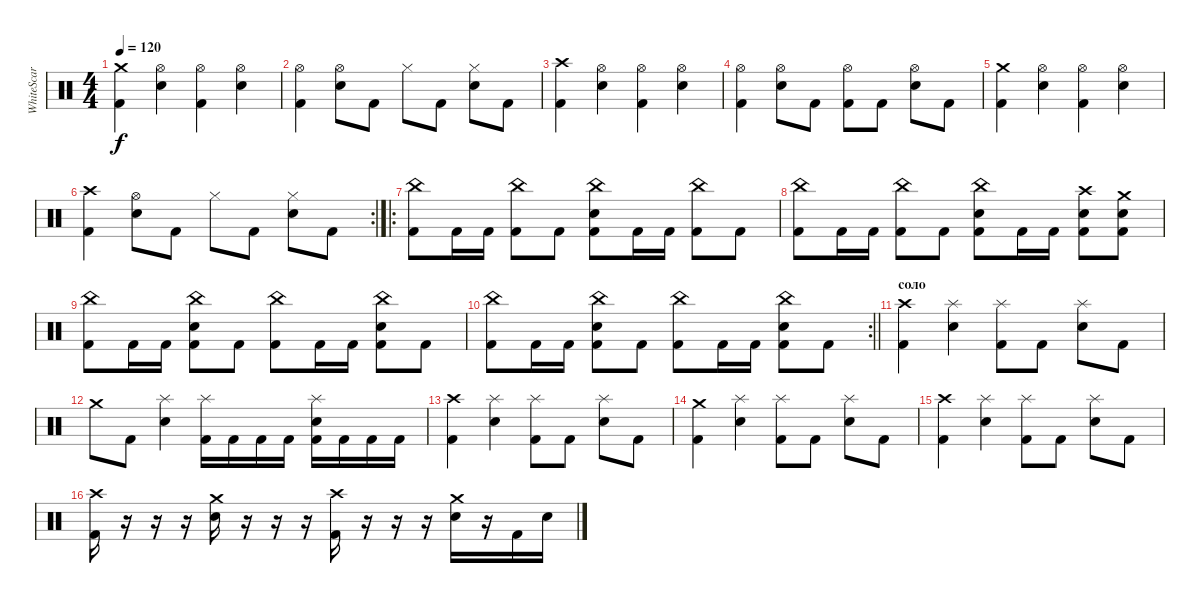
\track ("WhiteScar" "WhiteScar") {instrument percussion}
\staff {score}
\articulation defaults
\ts (4 4)
\tempo 120
\clef neutral
\ks c
("Crash medium (hit)" "Kick (hit) 2").4{dy f} ("Hi-Hat (open)" "Snare (hit) 2").4 ("Hi-Hat (open)" "Kick (hit) 2").4 ("Hi-Hat (open)" "Snare (hit) 2").4 |
("Hi-Hat (open)" "Kick (hit) 2").4 ("Hi-Hat (open)" "Snare (hit) 2").8 "Kick (hit) 2".8 "Hi-Hat (closed)".8 "Kick (hit) 2".8 ("Hi-Hat (closed)" "Snare (hit) 2").8 "Kick (hit) 2".8 |
("Crash high (hit)" "Kick (hit) 2").4 ("Hi-Hat (open)" "Snare (hit) 2").4 ("Hi-Hat (open)" "Kick (hit) 2").4 ("Hi-Hat (open)" "Snare (hit) 2").4 |
("Hi-Hat (open)" "Kick (hit) 2").4 ("Hi-Hat (open)" "Snare (hit) 2").8 "Kick (hit) 2".8 ("Hi-Hat (open)" "Kick (hit) 2").8 "Kick (hit) 2".8 ("Hi-Hat (open)" "Snare (hit) 2").8 "Kick (hit) 2".8 |
("Crash medium (hit)" "Kick (hit) 2").4 ("Hi-Hat (open)" "Snare (hit) 2").4 ("Hi-Hat (open)" "Kick (hit) 2").4 ("Hi-Hat (open)" "Snare (hit) 2").4 |
\rc 2
("Crash high (hit)" "Kick (hit) 2").4 ("Hi-Hat (open)" "Snare (hit) 2").8 "Kick (hit) 2".8 "Hi-Hat (closed)".8 "Kick (hit) 2".8 ("Hi-Hat (closed)" "Snare (hit) 2").8 "Kick (hit) 2".8 |
\ro
("China (hit)" "Kick (hit) 2").8 "Kick (hit) 2".16 "Kick (hit) 2".16 ("China (hit)" "Kick (hit) 2").8 "Kick (hit) 2".8 ("Snare (hit) 2" "China (hit)" "Kick (hit) 2").8 "Kick (hit) 2".16 "Kick (hit) 2".16 ("China (hit)" "Kick (hit) 2").8 "Kick (hit) 2".8 |
("China (hit)" "Kick (hit) 2").8 "Kick (hit) 2".16 "Kick (hit) 2".16 ("China (hit)" "Kick (hit) 2").8 "Kick (hit) 2".8 ("Snare (hit) 2" "China (hit)" "Kick (hit) 2").8 "Kick (hit) 2".16 "Kick (hit) 2".16 ("Snare (hit) 2" "Crash high (hit)" "Kick (hit) 2").8 ("Snare (hit) 2" "Crash medium (hit)" "Kick (hit) 2").8 |
("China (hit)" "Kick (hit) 2").8 "Kick (hit) 2".16 "Kick (hit) 2".16 ("Snare (hit) 2" "China (hit)" "Kick (hit) 2").8 "Kick (hit) 2".8 ("China (hit)" "Kick (hit) 2").8 "Kick (hit) 2".16 "Kick (hit) 2".16 ("Snare (hit) 2" "China (hit)" "Kick (hit) 2").8 "Kick (hit) 2".8 |
\rc 2
\barLineRight lightlight
("China (hit)" "Kick (hit) 2").8 "Kick (hit) 2".16 "Kick (hit) 2".16 ("Snare (hit) 2" "China (hit)" "Kick (hit) 2").8 "Kick (hit) 2".8 ("China (hit)" "Kick (hit) 2").8 "Kick (hit) 2".16 "Kick (hit) 2".16 ("Snare (hit) 2" "China (hit)" "Kick (hit) 2").8 "Kick (hit) 2".8 |
\section ("" "соло")
("Crash high (hit)" "Kick (hit) 2").4 ("Splash (hit)" "Snare (hit) 2").4 ("Splash (hit)" "Kick (hit) 2").8 "Kick (hit) 2".8 ("Splash (hit)" "Snare (hit) 2").8 "Kick (hit) 2".8 |
"Crash medium (hit)".8 "Kick (hit) 2".8 ("Splash (hit)" "Snare (hit) 2").4 ("Splash (hit)" "Kick (hit) 2").16 "Kick (hit) 2".16 "Kick (hit) 2".16 "Kick (hit) 2".16 ("Splash (hit)" "Snare (hit) 2" "Kick (hit) 2").16 "Kick (hit) 2".16 "Kick (hit) 2".16 "Kick (hit) 2".16 |
("Crash high (hit)" "Kick (hit) 2").4 ("Splash (hit)" "Snare (hit) 2").4 ("Splash (hit)" "Kick (hit) 2").8 "Kick (hit) 2".8 ("Splash (hit)" "Snare (hit) 2").8 "Kick (hit) 2".8 |
("Crash medium (hit)" "Kick (hit) 2").4 ("Splash (hit)" "Snare (hit) 2").4 ("Splash (hit)" "Kick (hit) 2").8 "Kick (hit) 2".8 ("Splash (hit)" "Snare (hit) 2").8 "Kick (hit) 2".8 |
("Crash high (hit)" "Kick (hit) 2").4 ("Splash (hit)" "Snare (hit) 2").4 ("Splash (hit)" "Kick (hit) 2").8 "Kick (hit) 2".8 ("Splash (hit)" "Snare (hit) 2").8 "Kick (hit) 2".8 |
("Crash high (hit)" "Kick (hit) 2").16 r.16 r.16 r.16 ("Crash medium (hit)" "Snare (hit) 2").16 r.16 r.16 r.16 ("Crash high (hit)" "Kick (hit) 2").16 r.16 r.16 r.16 ("Crash medium (hit)" "Snare (hit) 2").16 r.16 "Kick (hit) 2".16 "Snare (hit) 2".16
